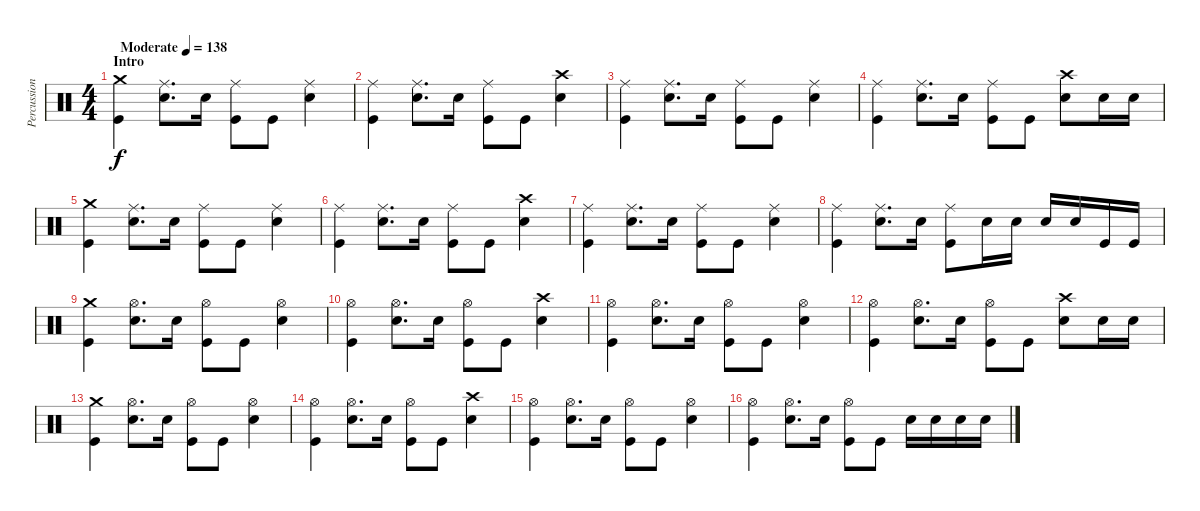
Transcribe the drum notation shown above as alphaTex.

\track ("Percussion" "Percussion") {instrument percussion}
\staff {score}
\articulation defaults
\ts (4 4)
\section ("" "Intro")
\tempo (138 "Moderate")
\clef neutral
\ks c
("Crash medium (hit)" "Kick (hit)").4{dy f} ("Ride (middle)" "Electric Snare (hit)").8{d} "Electric Snare (hit)".16 ("Ride (middle)" "Kick (hit)").8 "Kick (hit)".8 ("Ride (middle)" "Electric Snare (hit)").4 |
("Ride (middle)" "Kick (hit)").4 ("Ride (middle)" "Electric Snare (hit)").8{d} "Electric Snare (hit)".16 ("Ride (middle)" "Kick (hit)").8 "Kick (hit)".8 ("Crash high (hit)" "Electric Snare (hit)").4 |
("Ride (middle)" "Kick (hit)").4 ("Ride (middle)" "Electric Snare (hit)").8{d} "Electric Snare (hit)".16 ("Ride (middle)" "Kick (hit)").8 "Kick (hit)".8 ("Ride (middle)" "Electric Snare (hit)").4 |
("Ride (middle)" "Kick (hit)").4 ("Ride (middle)" "Electric Snare (hit)").8{d} "Electric Snare (hit)".16 ("Ride (middle)" "Kick (hit)").8 "Kick (hit)".8 ("Crash high (hit)" "Electric Snare (hit)").8 "Electric Snare (hit)".16 "Electric Snare (hit)".16 |
("Crash medium (hit)" "Kick (hit)").4 ("Ride (middle)" "Electric Snare (hit)").8{d} "Electric Snare (hit)".16 ("Ride (middle)" "Kick (hit)").8 "Kick (hit)".8 ("Ride (middle)" "Electric Snare (hit)").4 |
("Ride (middle)" "Kick (hit)").4 ("Ride (middle)" "Electric Snare (hit)").8{d} "Electric Snare (hit)".16 ("Ride (middle)" "Kick (hit)").8 "Kick (hit)".8 ("Crash high (hit)" "Electric Snare (hit)").4 |
("Ride (middle)" "Kick (hit)").4 ("Ride (middle)" "Electric Snare (hit)").8{d} "Electric Snare (hit)".16 ("Ride (middle)" "Kick (hit)").8 "Kick (hit)".8 ("Ride (middle)" "Electric Snare (hit)").4 |
("Ride (middle)" "Kick (hit)").4 ("Ride (middle)" "Electric Snare (hit)").8{d} "Electric Snare (hit)".16 ("Ride (middle)" "Kick (hit)").8 "Electric Snare (hit)".16 "Electric Snare (hit)".16 "Electric Snare (hit)".16 "Electric Snare (hit)".16 "Kick (hit)".16 "Kick (hit)".16 |
("Crash medium (hit)" "Kick (hit)").4 ("Hi-Hat (open)" "Electric Snare (hit)").8{d} "Electric Snare (hit)".16 ("Hi-Hat (open)" "Kick (hit)").8 "Kick (hit)".8 ("Hi-Hat (open)" "Electric Snare (hit)").4 |
("Hi-Hat (open)" "Kick (hit)").4 ("Hi-Hat (open)" "Electric Snare (hit)").8{d} "Electric Snare (hit)".16 ("Hi-Hat (open)" "Kick (hit)").8 "Kick (hit)".8 ("Crash high (hit)" "Electric Snare (hit)").4 |
("Hi-Hat (open)" "Kick (hit)").4 ("Hi-Hat (open)" "Electric Snare (hit)").8{d} "Electric Snare (hit)".16 ("Hi-Hat (open)" "Kick (hit)").8 "Kick (hit)".8 ("Hi-Hat (open)" "Electric Snare (hit)").4 |
("Hi-Hat (open)" "Kick (hit)").4 ("Hi-Hat (open)" "Electric Snare (hit)").8{d} "Electric Snare (hit)".16 ("Hi-Hat (open)" "Kick (hit)").8 "Kick (hit)".8 ("Crash high (hit)" "Electric Snare (hit)").8 "Electric Snare (hit)".16 "Electric Snare (hit)".16 |
("Crash medium (hit)" "Kick (hit)").4 ("Hi-Hat (open)" "Electric Snare (hit)").8{d} "Electric Snare (hit)".16 ("Hi-Hat (open)" "Kick (hit)").8 "Kick (hit)".8 ("Hi-Hat (open)" "Electric Snare (hit)").4 |
("Hi-Hat (open)" "Kick (hit)").4 ("Hi-Hat (open)" "Electric Snare (hit)").8{d} "Electric Snare (hit)".16 ("Hi-Hat (open)" "Kick (hit)").8 "Kick (hit)".8 ("Crash high (hit)" "Electric Snare (hit)").4 |
("Hi-Hat (open)" "Kick (hit)").4 ("Hi-Hat (open)" "Electric Snare (hit)").8{d} "Electric Snare (hit)".16 ("Hi-Hat (open)" "Kick (hit)").8 "Kick (hit)".8 ("Hi-Hat (open)" "Electric Snare (hit)").4 |
("Hi-Hat (open)" "Kick (hit)").4 ("Hi-Hat (open)" "Electric Snare (hit)").8{d} "Electric Snare (hit)".16 ("Hi-Hat (open)" "Kick (hit)").8 "Kick (hit)".8 "Electric Snare (hit)".16 "Electric Snare (hit)".16 "Electric Snare (hit)".16 "Electric Snare (hit)".16
